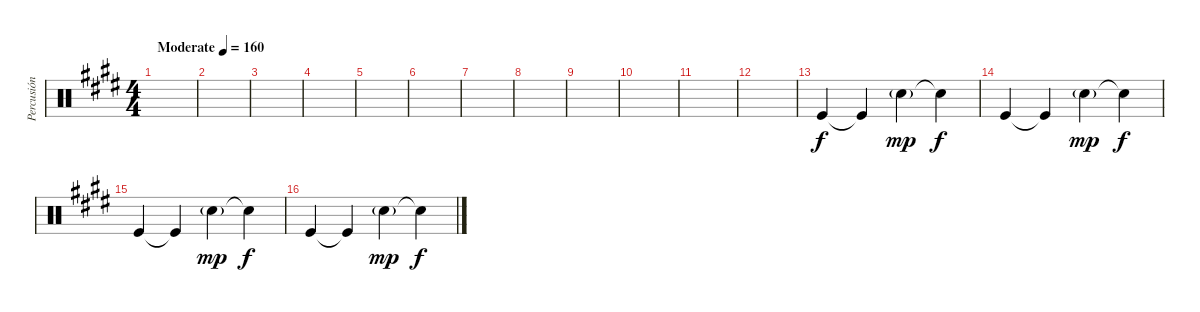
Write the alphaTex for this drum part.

\track ("Percusión" "Percusión") {instrument percussion}
\staff {score}
\articulation defaults
\ts (4 4)
\tempo (160 "Moderate")
\clef neutral
\ks e
|
|
|
|
|
|
|
|
|
|
|
|
"Kick (hit)".4 "Kick (hit)"{t}.4 "Hand Clap (hit)"{g}.4{dy mp} "Snare (hit)"{t}.4{dy f} |
"Kick (hit)".4 "Kick (hit)"{t}.4 "Hand Clap (hit)"{g}.4{dy mp} "Snare (hit)"{t}.4{dy f} |
"Kick (hit)".4 "Kick (hit)"{t}.4 "Hand Clap (hit)"{g}.4{dy mp} "Snare (hit)"{t}.4{dy f} |
"Kick (hit)".4 "Kick (hit)"{t}.4 "Hand Clap (hit)"{g}.4{dy mp} "Snare (hit)"{t}.4{dy f}
